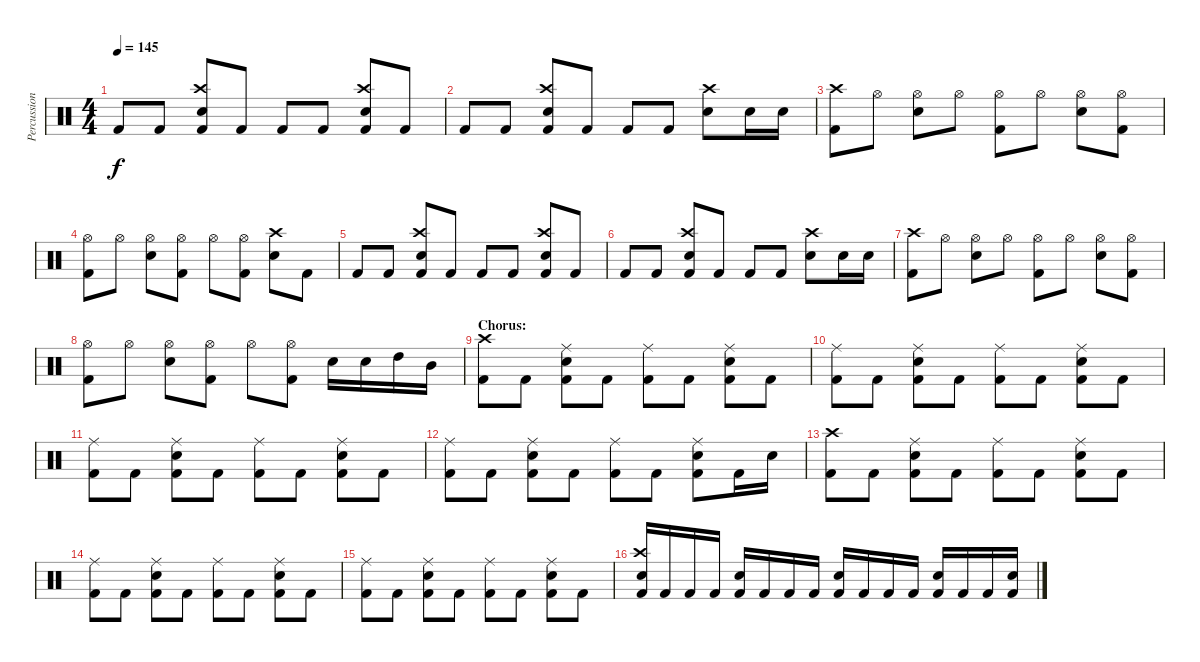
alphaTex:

\track ("Percussion" "Percussion") {instrument percussion}
\staff {score}
\articulation defaults
\ts (4 4)
\tempo 145
\clef neutral
\ks c "Kick (hit) 2".8{dy f} "Kick (hit) 2".8
("Crash high (hit)" "Electric Snare (hit)" "Kick (hit) 2").8 "Kick (hit) 2".8 "Kick (hit) 2".8 "Kick (hit) 2".8 ("Crash high (hit)" "Electric Snare (hit)" "Kick (hit) 2").8 "Kick (hit) 2".8 |
"Kick (hit) 2".8 "Kick (hit) 2".8 ("Crash high (hit)" "Electric Snare (hit)" "Kick (hit) 2").8 "Kick (hit) 2".8 "Kick (hit) 2".8 "Kick (hit) 2".8 ("Crash high (hit)" "Electric Snare (hit)").8 "Electric Snare (hit)".16 "Electric Snare (hit)".16 |
("Crash high (hit)" "Kick (hit) 2").8 "Hi-Hat (open)".8 ("Hi-Hat (open)" "Electric Snare (hit)").8 "Hi-Hat (open)".8 ("Hi-Hat (open)" "Kick (hit) 2").8 "Hi-Hat (open)".8 ("Hi-Hat (open)" "Electric Snare (hit)").8 ("Hi-Hat (open)" "Kick (hit) 2").8 |
("Hi-Hat (open)" "Kick (hit) 2").8 "Hi-Hat (open)".8 ("Hi-Hat (open)" "Electric Snare (hit)").8 ("Hi-Hat (open)" "Kick (hit) 2").8 "Hi-Hat (open)".8 ("Hi-Hat (open)" "Kick (hit) 2").8 ("Crash high (hit)" "Electric Snare (hit)").8 "Kick (hit) 2".8 |
"Kick (hit) 2".8 "Kick (hit) 2".8 ("Crash high (hit)" "Electric Snare (hit)" "Kick (hit) 2").8 "Kick (hit) 2".8 "Kick (hit) 2".8 "Kick (hit) 2".8 ("Crash high (hit)" "Electric Snare (hit)" "Kick (hit) 2").8 "Kick (hit) 2".8 |
"Kick (hit) 2".8 "Kick (hit) 2".8 ("Crash high (hit)" "Electric Snare (hit)" "Kick (hit) 2").8 "Kick (hit) 2".8 "Kick (hit) 2".8 "Kick (hit) 2".8 ("Crash high (hit)" "Electric Snare (hit)").8 "Electric Snare (hit)".16 "Electric Snare (hit)".16 |
("Crash high (hit)" "Kick (hit) 2").8 "Hi-Hat (open)".8 ("Hi-Hat (open)" "Electric Snare (hit)").8 "Hi-Hat (open)".8 ("Hi-Hat (open)" "Kick (hit) 2").8 "Hi-Hat (open)".8 ("Hi-Hat (open)" "Electric Snare (hit)").8 ("Hi-Hat (open)" "Kick (hit) 2").8 |
("Hi-Hat (open)" "Kick (hit) 2").8 "Hi-Hat (open)".8 ("Hi-Hat (open)" "Electric Snare (hit)").8 ("Hi-Hat (open)" "Kick (hit) 2").8 "Hi-Hat (open)".8 ("Hi-Hat (open)" "Kick (hit) 2").8 "Electric Snare (hit)".16 "Electric Snare (hit)".16 "High Tom (hit)".16 "Mid Tom (hit)".16 |
\section ("" "Chorus:")
("Crash high (hit)" "Kick (hit) 2").8 "Kick (hit) 2".8 ("Ride (middle)" "Electric Snare (hit)" "Kick (hit) 2").8 "Kick (hit) 2".8 ("Ride (middle)" "Kick (hit) 2").8 "Kick (hit) 2".8 ("Ride (middle)" "Electric Snare (hit)" "Kick (hit) 2").8 "Kick (hit) 2".8 |
("Ride (middle)" "Kick (hit) 2").8 "Kick (hit) 2".8 ("Ride (middle)" "Electric Snare (hit)" "Kick (hit) 2").8 "Kick (hit) 2".8 ("Ride (middle)" "Kick (hit) 2").8 "Kick (hit) 2".8 ("Ride (middle)" "Electric Snare (hit)" "Kick (hit) 2").8 "Kick (hit) 2".8 |
("Ride (middle)" "Kick (hit) 2").8 "Kick (hit) 2".8 ("Ride (middle)" "Electric Snare (hit)" "Kick (hit) 2").8 "Kick (hit) 2".8 ("Ride (middle)" "Kick (hit) 2").8 "Kick (hit) 2".8 ("Ride (middle)" "Electric Snare (hit)" "Kick (hit) 2").8 "Kick (hit) 2".8 |
("Ride (middle)" "Kick (hit) 2").8 "Kick (hit) 2".8 ("Ride (middle)" "Electric Snare (hit)" "Kick (hit) 2").8 "Kick (hit) 2".8 ("Ride (middle)" "Kick (hit) 2").8 "Kick (hit) 2".8 ("Ride (middle)" "Electric Snare (hit)" "Kick (hit) 2").8 "Kick (hit) 2".16 "Electric Snare (hit)".16 |
("Crash high (hit)" "Kick (hit) 2").8 "Kick (hit) 2".8 ("Ride (middle)" "Electric Snare (hit)" "Kick (hit) 2").8 "Kick (hit) 2".8 ("Ride (middle)" "Kick (hit) 2").8 "Kick (hit) 2".8 ("Ride (middle)" "Electric Snare (hit)" "Kick (hit) 2").8 "Kick (hit) 2".8 |
("Ride (middle)" "Kick (hit) 2").8 "Kick (hit) 2".8 ("Ride (middle)" "Electric Snare (hit)" "Kick (hit) 2").8 "Kick (hit) 2".8 ("Ride (middle)" "Kick (hit) 2").8 "Kick (hit) 2".8 ("Ride (middle)" "Electric Snare (hit)" "Kick (hit) 2").8 "Kick (hit) 2".8 |
("Ride (middle)" "Kick (hit) 2").8 "Kick (hit) 2".8 ("Ride (middle)" "Electric Snare (hit)" "Kick (hit) 2").8 "Kick (hit) 2".8 ("Ride (middle)" "Kick (hit) 2").8 "Kick (hit) 2".8 ("Ride (middle)" "Electric Snare (hit)" "Kick (hit) 2").8 "Kick (hit) 2".8 |
("Crash high (hit)" "Electric Snare (hit)" "Kick (hit) 2").16 "Kick (hit) 2".16 "Kick (hit) 2".16 "Kick (hit) 2".16 ("Electric Snare (hit)" "Kick (hit) 2").16 "Kick (hit) 2".16 "Kick (hit) 2".16 "Kick (hit) 2".16 ("Electric Snare (hit)" "Kick (hit) 2").16 "Kick (hit) 2".16 "Kick (hit) 2".16 "Kick (hit) 2".16 ("Electric Snare (hit)" "Kick (hit) 2").16 "Kick (hit) 2".16 "Kick (hit) 2".16 ("Electric Snare (hit)" "Kick (hit) 2").16
